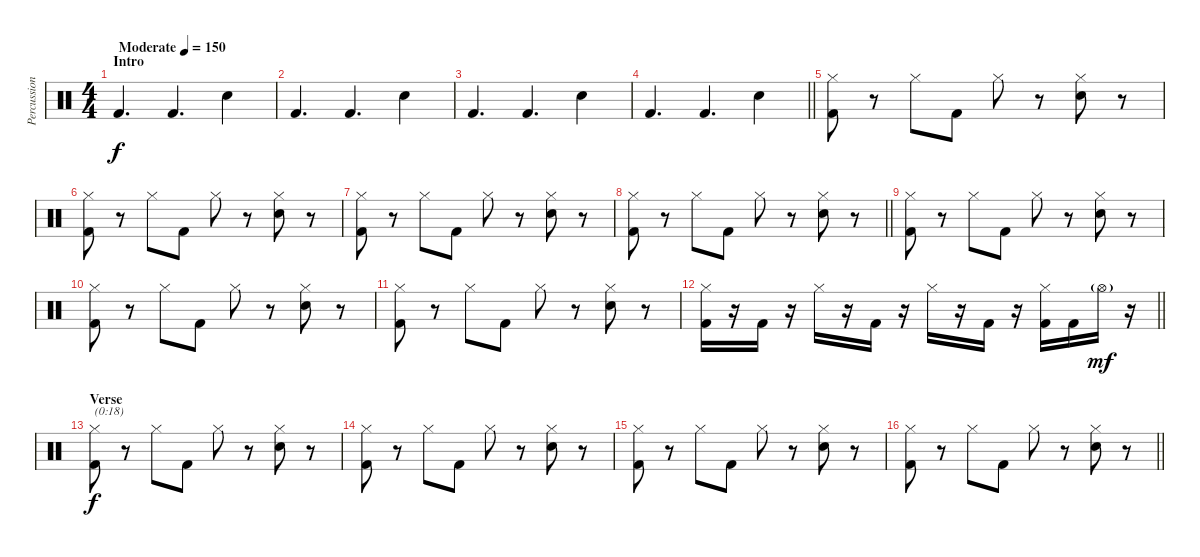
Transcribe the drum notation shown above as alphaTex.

\track ("Percussion" "Percussion") {instrument percussion}
\staff {score}
\articulation defaults
\ts (4 4)
\section ("" "Intro")
\tempo (150 "Moderate")
\clef neutral
\ks c "Kick (hit) 2".4{d dy f} "Kick (hit) 2".4{d} "Hand Clap (hit)".4
|
"Kick (hit) 2".4{d} "Kick (hit) 2".4{d} "Hand Clap (hit)".4 |
"Kick (hit) 2".4{d} "Kick (hit) 2".4{d} "Hand Clap (hit)".4 |
\barLineRight lightlight "Kick (hit) 2".4{d} "Kick (hit) 2".4{d} "Hand Clap (hit)".4
|
\section ("" "")
("Hi-Hat (closed)" "Kick (hit) 2").8 r.8 "Hi-Hat (closed)".8 "Kick (hit) 2".8 "Hi-Hat (closed)".8 r.8 ("Hi-Hat (closed)" "Hand Clap (hit)").8 r.8 |
("Hi-Hat (closed)" "Kick (hit) 2").8 r.8 "Hi-Hat (closed)".8 "Kick (hit) 2".8 "Hi-Hat (closed)".8 r.8 ("Hi-Hat (closed)" "Hand Clap (hit)").8 r.8 |
("Hi-Hat (closed)" "Kick (hit) 2").8 r.8 "Hi-Hat (closed)".8 "Kick (hit) 2".8 "Hi-Hat (closed)".8 r.8 ("Hi-Hat (closed)" "Hand Clap (hit)").8 r.8 |
\barLineRight lightlight
("Hi-Hat (closed)" "Kick (hit) 2").8 r.8 "Hi-Hat (closed)".8 "Kick (hit) 2".8 "Hi-Hat (closed)".8 r.8 ("Hi-Hat (closed)" "Hand Clap (hit)").8 r.8 |
\section ("" "")
("Hi-Hat (closed)" "Kick (hit) 2").8 r.8 "Hi-Hat (closed)".8 "Kick (hit) 2".8 "Hi-Hat (closed)".8 r.8 ("Hi-Hat (closed)" "Hand Clap (hit)").8 r.8 |
("Hi-Hat (closed)" "Kick (hit) 2").8 r.8 "Hi-Hat (closed)".8 "Kick (hit) 2".8 "Hi-Hat (closed)".8 r.8 ("Hi-Hat (closed)" "Hand Clap (hit)").8 r.8 |
("Hi-Hat (closed)" "Kick (hit) 2").8 r.8 "Hi-Hat (closed)".8 "Kick (hit) 2".8 "Hi-Hat (closed)".8 r.8 ("Hi-Hat (closed)" "Hand Clap (hit)").8 r.8 |
\barLineRight lightlight
("Hi-Hat (closed)" "Kick (hit) 2").16 r.16 "Kick (hit) 2".16 r.16 "Hi-Hat (closed)".16 r.16 "Kick (hit) 2".16 r.16 "Hi-Hat (closed)".16 r.16 "Kick (hit) 2".16 r.16 ("Hi-Hat (closed)" "Kick (hit) 2").16 "Kick (hit) 2".16 "Hi-Hat (open)"{g}.16{dy mf} r.16 |
\section ("" "Verse")
("Hi-Hat (closed)" "Kick (hit) 2").8{txt "(0:18)" dy f} r.8 "Hi-Hat (closed)".8 "Kick (hit) 2".8 "Hi-Hat (closed)".8 r.8 ("Hi-Hat (closed)" "Hand Clap (hit)").8 r.8 |
("Hi-Hat (closed)" "Kick (hit) 2").8 r.8 "Hi-Hat (closed)".8 "Kick (hit) 2".8 "Hi-Hat (closed)".8 r.8 ("Hi-Hat (closed)" "Hand Clap (hit)").8 r.8 |
("Hi-Hat (closed)" "Kick (hit) 2").8 r.8 "Hi-Hat (closed)".8 "Kick (hit) 2".8 "Hi-Hat (closed)".8 r.8 ("Hi-Hat (closed)" "Hand Clap (hit)").8 r.8 |
\barLineRight lightlight
("Hi-Hat (closed)" "Kick (hit) 2").8 r.8 "Hi-Hat (closed)".8 "Kick (hit) 2".8 "Hi-Hat (closed)".8 r.8 ("Hi-Hat (closed)" "Hand Clap (hit)").8 r.8
